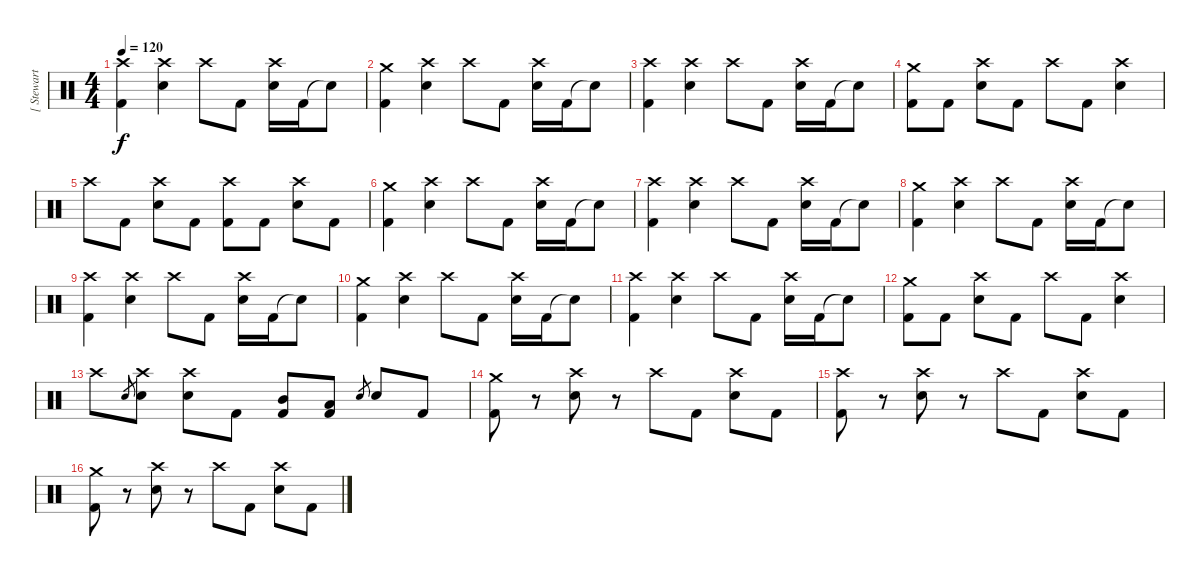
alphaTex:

\track ("[ Stewart ] " "[ Stewart ") {instrument percussion}
\staff {score}
\articulation defaults
\ts (4 4)
\tempo 120
\clef neutral
\ks c
("Kick (hit) 2" "Crash high (hit)").4{dy f} ("Electric Snare (hit)" "Crash high (hit)").4 "Crash high (hit)".8 "Kick (hit) 2".8 ("Electric Snare (hit)" "Crash high (hit)").16 "Kick (hit) 2".16 "Snare (hit)"{t}.8 |
("Kick (hit) 2" "Crash medium (hit)").4 ("Electric Snare (hit)" "Crash high (hit)").4 "Crash high (hit)".8 "Kick (hit) 2".8 ("Electric Snare (hit)" "Crash high (hit)").16 "Kick (hit) 2".16 "Snare (hit)"{t}.8 |
("Kick (hit) 2" "Crash high (hit)").4 ("Electric Snare (hit)" "Crash high (hit)").4 "Crash high (hit)".8 "Kick (hit) 2".8 ("Electric Snare (hit)" "Crash high (hit)").16 "Kick (hit) 2".16 "Snare (hit)"{t}.8 |
("Kick (hit) 2" "Crash medium (hit)").8 "Kick (hit) 2".8 ("Electric Snare (hit)" "Crash high (hit)").8 "Kick (hit) 2".8 "Crash high (hit)".8 "Kick (hit) 2".8 ("Electric Snare (hit)" "Crash high (hit)").4 |
"Crash high (hit)".8 "Kick (hit) 2".8 ("Electric Snare (hit)" "Crash high (hit)").8 "Kick (hit) 2".8 ("Kick (hit) 2" "Crash high (hit)").8 "Kick (hit) 2".8 ("Electric Snare (hit)" "Crash high (hit)").8 "Kick (hit) 2".8 |
("Kick (hit) 2" "Crash medium (hit)").4 ("Electric Snare (hit)" "Crash high (hit)").4 "Crash high (hit)".8 "Kick (hit) 2".8 ("Electric Snare (hit)" "Crash high (hit)").16 "Kick (hit) 2".16 "Snare (hit)"{t}.8 |
("Kick (hit) 2" "Crash high (hit)").4 ("Electric Snare (hit)" "Crash high (hit)").4 "Crash high (hit)".8 "Kick (hit) 2".8 ("Electric Snare (hit)" "Crash high (hit)").16 "Kick (hit) 2".16 "Snare (hit)"{t}.8 |
("Kick (hit) 2" "Crash medium (hit)").4 ("Electric Snare (hit)" "Crash high (hit)").4 "Crash high (hit)".8 "Kick (hit) 2".8 ("Electric Snare (hit)" "Crash high (hit)").16 "Kick (hit) 2".16 "Snare (hit)"{t}.8 |
("Kick (hit) 2" "Crash high (hit)").4 ("Electric Snare (hit)" "Crash high (hit)").4 "Crash high (hit)".8 "Kick (hit) 2".8 ("Electric Snare (hit)" "Crash high (hit)").16 "Kick (hit) 2".16 "Snare (hit)"{t}.8 |
("Kick (hit) 2" "Crash medium (hit)").4 ("Electric Snare (hit)" "Crash high (hit)").4 "Crash high (hit)".8 "Kick (hit) 2".8 ("Electric Snare (hit)" "Crash high (hit)").16 "Kick (hit) 2".16 "Snare (hit)"{t}.8 |
("Kick (hit) 2" "Crash high (hit)").4 ("Electric Snare (hit)" "Crash high (hit)").4 "Crash high (hit)".8 "Kick (hit) 2".8 ("Electric Snare (hit)" "Crash high (hit)").16 "Kick (hit) 2".16 "Snare (hit)"{t}.8 |
("Kick (hit) 2" "Crash medium (hit)").8 "Kick (hit) 2".8 ("Electric Snare (hit)" "Crash high (hit)").8 "Kick (hit) 2".8 "Crash high (hit)".8 "Kick (hit) 2".8 ("Electric Snare (hit)" "Crash high (hit)").4 |
"Crash high (hit)".8 "Electric Snare (hit)".8{gr} ("Electric Snare (hit)" "Crash high (hit)").8 ("Electric Snare (hit)" "Crash high (hit)").8 "Kick (hit) 2".8 ("Mid Tom (hit)" "Kick (hit) 2").8 ("Low Tom (hit)" "Kick (hit) 2").8 "Electric Snare (hit)".8{gr} "Electric Snare (hit)".8 "Kick (hit) 2".8 |
("Kick (hit) 2" "Crash medium (hit)").8 r.8 ("Electric Snare (hit)" "Crash high (hit)").8 r.8 "Crash high (hit)".8 "Kick (hit) 2".8 ("Electric Snare (hit)" "Crash high (hit)").8 "Kick (hit) 2".8 |
("Kick (hit) 2" "Crash high (hit)").8 r.8 ("Electric Snare (hit)" "Crash high (hit)").8 r.8 "Crash high (hit)".8 "Kick (hit) 2".8 ("Electric Snare (hit)" "Crash high (hit)").8 "Kick (hit) 2".8 |
("Kick (hit) 2" "Crash medium (hit)").8 r.8 ("Electric Snare (hit)" "Crash high (hit)").8 r.8 "Crash high (hit)".8 "Kick (hit) 2".8 ("Electric Snare (hit)" "Crash high (hit)").8 "Kick (hit) 2".8
